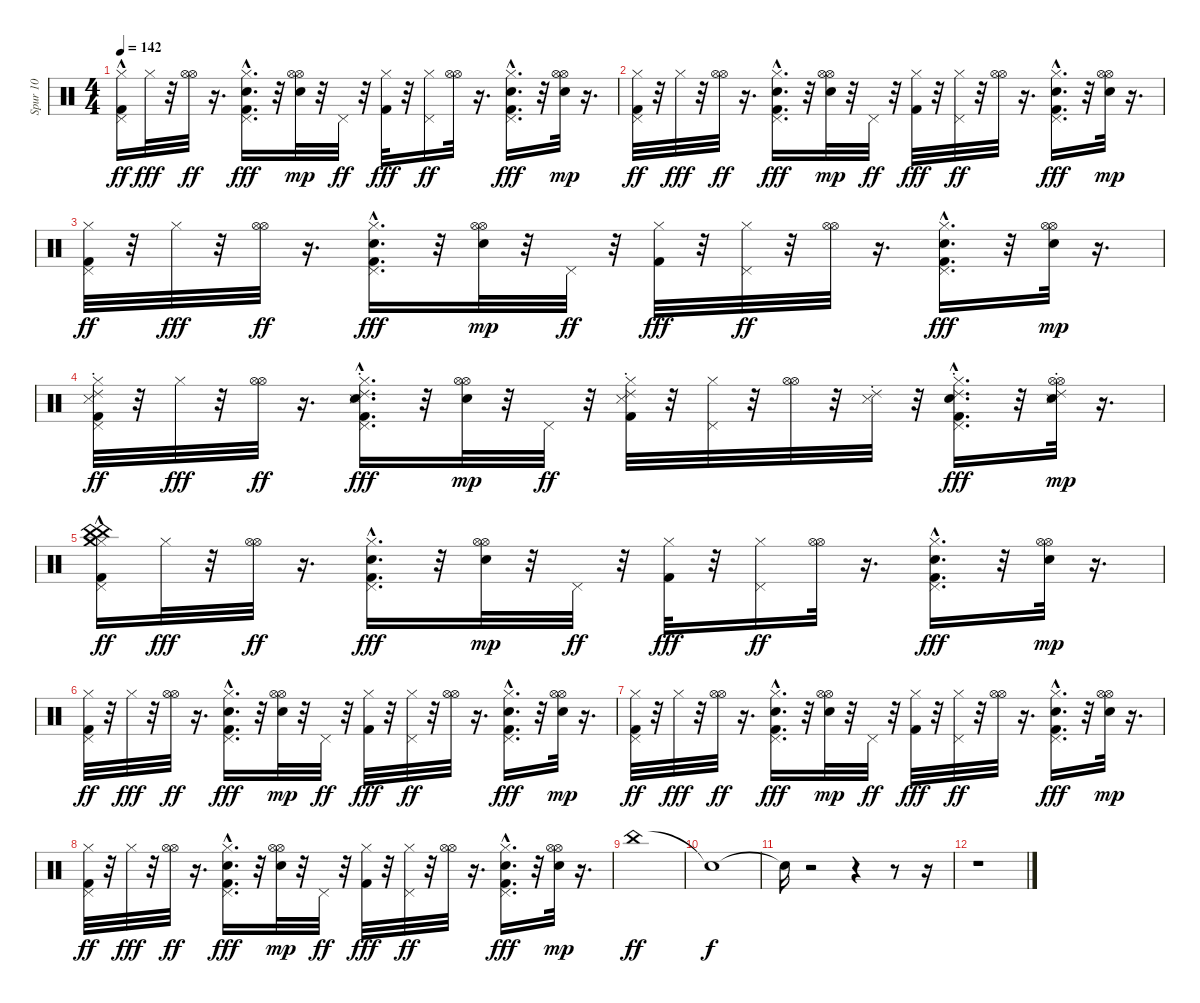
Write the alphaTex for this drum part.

\track ("Spur 10" "Spur 10") {instrument percussion}
\staff {score}
\articulation defaults
\ts (4 4)
\tempo 142
\clef neutral
\ks c
("Kick (hit) 2"{hac} "Hi-Hat (closed)" "Pedal Hi-Hat (hit)").16{dy ff} "Hi-Hat (closed)".32{dy fff} r.32 ("Hi-Hat (open)" "Hi-Hat (open)").32{dy ff} r.16{d} ("Kick (hit) 2" "Hi-Hat (closed)" "Pedal Hi-Hat (hit)" "Hand Clap (hit)"{hac}).16{d dy fff balance 16} r.32 ("Hi-Hat (open)" "Hi-Hat (open)" "Hand Clap (hit)").32{dy mp balance 0} r.32 "Pedal Hi-Hat (hit)".32{dy ff} r.32 ("Kick (hit) 2" "Hi-Hat (closed)").32{dy fff} r.32 ("Hi-Hat (closed)" "Pedal Hi-Hat (hit)").16{dy ff} ("Hi-Hat (open)" "Hi-Hat (open)").32 r.16{d} ("Kick (hit) 2" "Hi-Hat (closed)" "Pedal Hi-Hat (hit)" "Hand Clap (hit)"{hac}).16{d dy fff balance 16} r.32 ("Hi-Hat (open)" "Hi-Hat (open)" "Hand Clap (hit)").32{dy mp balance 0} r.16{d} |
("Kick (hit) 2" "Hi-Hat (closed)" "Pedal Hi-Hat (hit)").32{dy ff} r.32 "Hi-Hat (closed)".32{dy fff} r.32 ("Hi-Hat (open)" "Hi-Hat (open)").32{dy ff} r.16{d} ("Kick (hit) 2" "Hi-Hat (closed)" "Pedal Hi-Hat (hit)" "Hand Clap (hit)"{hac}).16{d dy fff balance 16} r.32 ("Hi-Hat (open)" "Hi-Hat (open)" "Hand Clap (hit)").32{dy mp balance 0} r.32 "Pedal Hi-Hat (hit)".32{dy ff} r.32 ("Kick (hit) 2" "Hi-Hat (closed)").32{dy fff} r.32 ("Hi-Hat (closed)" "Pedal Hi-Hat (hit)").32{dy ff} r.32 ("Hi-Hat (open)" "Hi-Hat (open)").32 r.16{d} ("Kick (hit) 2" "Hi-Hat (closed)" "Pedal Hi-Hat (hit)" "Hand Clap (hit)"{hac}).16{d dy fff balance 16} r.32 ("Hi-Hat (open)" "Hi-Hat (open)" "Hand Clap (hit)").32{dy mp balance 0} r.16{d} |
("Kick (hit) 2" "Hi-Hat (closed)" "Pedal Hi-Hat (hit)").32{dy ff} r.32 "Hi-Hat (closed)".32{dy fff} r.32 ("Hi-Hat (open)" "Hi-Hat (open)").32{dy ff} r.16{d} ("Kick (hit) 2" "Hi-Hat (closed)" "Pedal Hi-Hat (hit)" "Hand Clap (hit)"{hac}).16{d dy fff balance 16} r.32 ("Hi-Hat (open)" "Hi-Hat (open)" "Hand Clap (hit)").32{dy mp balance 0} r.32 "Pedal Hi-Hat (hit)".32{dy ff} r.32 ("Kick (hit) 2" "Hi-Hat (closed)").32{dy fff} r.32 ("Hi-Hat (closed)" "Pedal Hi-Hat (hit)").32{dy ff} r.32 ("Hi-Hat (open)" "Hi-Hat (open)").32 r.16{d} ("Kick (hit) 2" "Hi-Hat (closed)" "Pedal Hi-Hat (hit)" "Hand Clap (hit)"{hac}).16{d dy fff balance 16} r.32 ("Hi-Hat (open)" "Hi-Hat (open)" "Hand Clap (hit)").32{dy mp balance 0} r.16{d} |
("Kick (hit) 2" "Hi-Hat (closed)" "Pedal Hi-Hat (hit)" "Metronome (hit)" "Ride (choke) 2").32{dy ff} r.32 "Hi-Hat (closed)".32{dy fff} r.32 ("Hi-Hat (open)" "Hi-Hat (open)").32{dy ff} r.16{d} ("Kick (hit) 2" "Hi-Hat (closed)" "Pedal Hi-Hat (hit)" "Ride (choke) 2" "Metronome (hit)" "Hand Clap (hit)"{hac}).16{d dy fff balance 16} r.32 ("Hi-Hat (open)" "Hi-Hat (open)" "Hand Clap (hit)").32{dy mp balance 0} r.32 "Pedal Hi-Hat (hit)".32{dy ff} r.32 ("Kick (hit) 2" "Hi-Hat (closed)" "Ride (choke) 2" "Metronome (hit)").32 r.32 ("Hi-Hat (closed)" "Pedal Hi-Hat (hit)").32 r.32 ("Hi-Hat (open)" "Hi-Hat (open)").32 r.32 ("Metronome (hit)" "Ride (choke) 2").32 r.32 ("Kick (hit) 2" "Hi-Hat (closed)" "Pedal Hi-Hat (hit)" "Ride (choke) 2" "Hand Clap (hit)"{hac}).16{d dy fff balance 16} r.32 ("Hi-Hat (open)" "Hi-Hat (open)" "Ride (choke) 2" "Metronome (hit)" "Hand Clap (hit)").32{dy mp balance 0} r.16{d} |
("Kick (hit) 2"{hac} "Hi-Hat (closed)" "Pedal Hi-Hat (hit)" "Crash medium (hit)" "China (hit)" "China (hit)").16{dy ff} "Hi-Hat (closed)".32{dy fff} r.32 ("Hi-Hat (open)" "Hi-Hat (open)").32{dy ff} r.16{d} ("Kick (hit) 2" "Hi-Hat (closed)" "Pedal Hi-Hat (hit)" "Hand Clap (hit)"{hac}).16{d dy fff balance 16} r.32 ("Hi-Hat (open)" "Hi-Hat (open)" "Hand Clap (hit)").32{dy mp balance 0} r.32 "Pedal Hi-Hat (hit)".32{dy ff} r.32 ("Kick (hit) 2" "Hi-Hat (closed)").32{dy fff} r.32 ("Hi-Hat (closed)" "Pedal Hi-Hat (hit)").16{dy ff} ("Hi-Hat (open)" "Hi-Hat (open)").32 r.16{d} ("Kick (hit) 2" "Hi-Hat (closed)" "Pedal Hi-Hat (hit)" "Hand Clap (hit)"{hac}).16{d dy fff balance 16} r.32 ("Hi-Hat (open)" "Hi-Hat (open)" "Hand Clap (hit)").32{dy mp balance 0} r.16{d} |
("Kick (hit) 2" "Hi-Hat (closed)" "Pedal Hi-Hat (hit)").32{dy ff} r.32 "Hi-Hat (closed)".32{dy fff} r.32 ("Hi-Hat (open)" "Hi-Hat (open)").32{dy ff} r.16{d} ("Kick (hit) 2" "Hi-Hat (closed)" "Pedal Hi-Hat (hit)" "Hand Clap (hit)"{hac}).16{d dy fff balance 16} r.32 ("Hi-Hat (open)" "Hi-Hat (open)" "Hand Clap (hit)").32{dy mp balance 0} r.32 "Pedal Hi-Hat (hit)".32{dy ff} r.32 ("Kick (hit) 2" "Hi-Hat (closed)").32{dy fff} r.32 ("Hi-Hat (closed)" "Pedal Hi-Hat (hit)").32{dy ff} r.32 ("Hi-Hat (open)" "Hi-Hat (open)").32 r.16{d} ("Kick (hit) 2" "Hi-Hat (closed)" "Pedal Hi-Hat (hit)" "Hand Clap (hit)"{hac}).16{d dy fff balance 16} r.32 ("Hi-Hat (open)" "Hi-Hat (open)" "Hand Clap (hit)").32{dy mp balance 0} r.16{d} |
("Kick (hit) 2" "Hi-Hat (closed)" "Pedal Hi-Hat (hit)").32{dy ff} r.32 "Hi-Hat (closed)".32{dy fff} r.32 ("Hi-Hat (open)" "Hi-Hat (open)").32{dy ff} r.16{d} ("Kick (hit) 2" "Hi-Hat (closed)" "Pedal Hi-Hat (hit)" "Hand Clap (hit)"{hac}).16{d dy fff balance 16} r.32 ("Hi-Hat (open)" "Hi-Hat (open)" "Hand Clap (hit)").32{dy mp balance 0} r.32 "Pedal Hi-Hat (hit)".32{dy ff} r.32 ("Kick (hit) 2" "Hi-Hat (closed)").32{dy fff} r.32 ("Hi-Hat (closed)" "Pedal Hi-Hat (hit)").32{dy ff} r.32 ("Hi-Hat (open)" "Hi-Hat (open)").32 r.16{d} ("Kick (hit) 2" "Hi-Hat (closed)" "Pedal Hi-Hat (hit)" "Hand Clap (hit)"{hac}).16{d dy fff balance 16} r.32 ("Hi-Hat (open)" "Hi-Hat (open)" "Hand Clap (hit)").32{dy mp balance 0} r.16{d} |
("Kick (hit) 2" "Hi-Hat (closed)" "Pedal Hi-Hat (hit)").32{dy ff} r.32 "Hi-Hat (closed)".32{dy fff} r.32 ("Hi-Hat (open)" "Hi-Hat (open)").32{dy ff} r.16{d} ("Kick (hit) 2" "Hi-Hat (closed)" "Pedal Hi-Hat (hit)" "Hand Clap (hit)"{hac}).16{d dy fff balance 16} r.32 ("Hi-Hat (open)" "Hi-Hat (open)" "Hand Clap (hit)").32{dy mp balance 0} r.32 "Pedal Hi-Hat (hit)".32{dy ff} r.32 ("Kick (hit) 2" "Hi-Hat (closed)").32{dy fff} r.32 ("Hi-Hat (closed)" "Pedal Hi-Hat (hit)").32{dy ff} r.32 ("Hi-Hat (open)" "Hi-Hat (open)").32 r.16{d} ("Kick (hit) 2" "Hi-Hat (closed)" "Pedal Hi-Hat (hit)" "Hand Clap (hit)"{hac}).16{d dy fff balance 16} r.32 ("Hi-Hat (open)" "Hi-Hat (open)" "Hand Clap (hit)").32{dy mp balance 0} r.16{d} |
"China (hit)".1{dy ff} |
"Snare (hit)"{t}.1{dy f} |
"Snare (hit)"{t}.16 r.2 r.4 r.8 r.16 |
r.1
